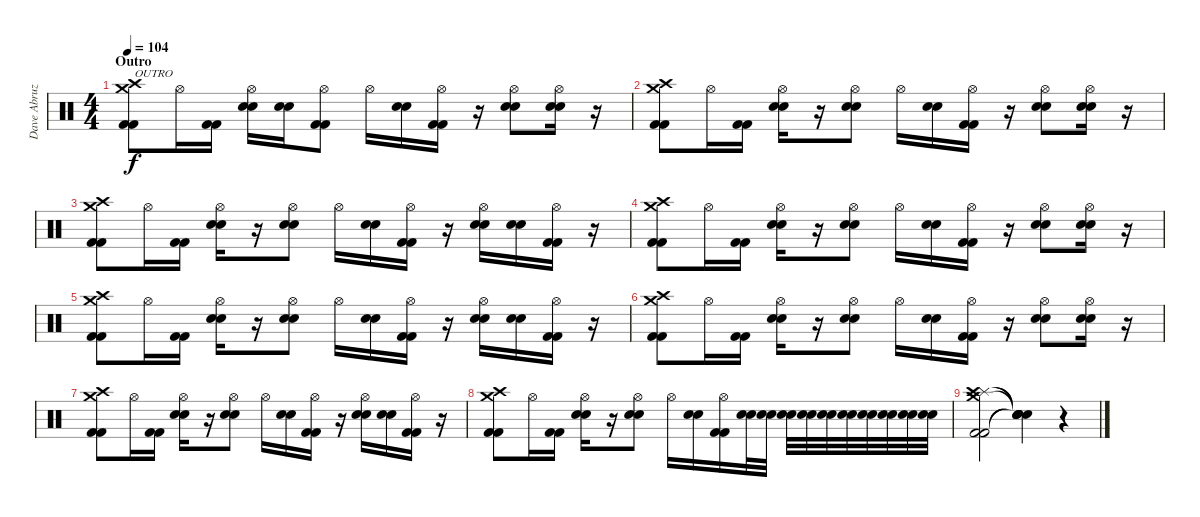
\track ("Dave Abruzzese" "Dave Abruz") {instrument percussion}
\staff {score}
\articulation defaults
\ts (4 4)
\section ("" "Outro")
\tempo 104
\clef neutral
\ks c
("Crash medium (hit)" "Kick (hit) 2" "Kick (hit) 2" "Crash high (hit)").8{txt "OUTRO" dy f} "Hi-Hat (open)".16 ("Kick (hit) 2" "Kick (hit) 2").16 ("Electric Snare (hit)" "Electric Snare (hit)" "Hi-Hat (open)").16 ("Electric Snare (hit)" "Electric Snare (hit)").16 ("Kick (hit) 2" "Kick (hit) 2" "Hi-Hat (open)").8 "Hi-Hat (open)".16 ("Electric Snare (hit)" "Electric Snare (hit)").16 ("Kick (hit) 2" "Kick (hit) 2" "Hi-Hat (open)").16 r.16 ("Electric Snare (hit)" "Electric Snare (hit)" "Hi-Hat (open)").8 ("Electric Snare (hit)" "Electric Snare (hit)" "Hi-Hat (open)").16 r.16 |
("Crash medium (hit)" "Kick (hit) 2" "Kick (hit) 2" "Crash high (hit)").8 "Hi-Hat (open)".16 ("Kick (hit) 2" "Kick (hit) 2").16 ("Electric Snare (hit)" "Electric Snare (hit)" "Hi-Hat (open)").16 r.16 ("Electric Snare (hit)" "Electric Snare (hit)" "Hi-Hat (open)").8 "Hi-Hat (open)".16 ("Electric Snare (hit)" "Electric Snare (hit)").16 ("Kick (hit) 2" "Kick (hit) 2" "Hi-Hat (open)").16 r.16 ("Electric Snare (hit)" "Electric Snare (hit)" "Hi-Hat (open)").8 ("Electric Snare (hit)" "Electric Snare (hit)" "Hi-Hat (open)").16 r.16 |
("Crash medium (hit)" "Kick (hit) 2" "Kick (hit) 2" "Crash high (hit)").8 "Hi-Hat (open)".16 ("Kick (hit) 2" "Kick (hit) 2").16 ("Electric Snare (hit)" "Electric Snare (hit)" "Hi-Hat (open)").16 r.16 ("Electric Snare (hit)" "Electric Snare (hit)" "Hi-Hat (open)").8 "Hi-Hat (open)".16 ("Electric Snare (hit)" "Electric Snare (hit)").16 ("Kick (hit) 2" "Kick (hit) 2" "Hi-Hat (open)").16 r.16 ("Electric Snare (hit)" "Electric Snare (hit)" "Hi-Hat (open)").16 ("Electric Snare (hit)" "Electric Snare (hit)").16 ("Kick (hit) 2" "Kick (hit) 2" "Hi-Hat (open)").16 r.16 |
("Crash medium (hit)" "Kick (hit) 2" "Kick (hit) 2" "Crash high (hit)").8 "Hi-Hat (open)".16 ("Kick (hit) 2" "Kick (hit) 2").16 ("Electric Snare (hit)" "Electric Snare (hit)" "Hi-Hat (open)").16 r.16 ("Electric Snare (hit)" "Electric Snare (hit)" "Hi-Hat (open)").8 "Hi-Hat (open)".16 ("Electric Snare (hit)" "Electric Snare (hit)").16 ("Kick (hit) 2" "Kick (hit) 2" "Hi-Hat (open)").16 r.16 ("Electric Snare (hit)" "Electric Snare (hit)" "Hi-Hat (open)").8 ("Electric Snare (hit)" "Electric Snare (hit)" "Hi-Hat (open)").16 r.16 |
("Crash medium (hit)" "Kick (hit) 2" "Kick (hit) 2" "Crash high (hit)").8 "Hi-Hat (open)".16 ("Kick (hit) 2" "Kick (hit) 2").16 ("Electric Snare (hit)" "Electric Snare (hit)" "Hi-Hat (open)").16 r.16 ("Electric Snare (hit)" "Electric Snare (hit)" "Hi-Hat (open)").8 "Hi-Hat (open)".16 ("Electric Snare (hit)" "Electric Snare (hit)").16 ("Kick (hit) 2" "Kick (hit) 2" "Hi-Hat (open)").16 r.16 ("Electric Snare (hit)" "Electric Snare (hit)" "Hi-Hat (open)").16 ("Electric Snare (hit)" "Electric Snare (hit)").16 ("Kick (hit) 2" "Kick (hit) 2" "Hi-Hat (open)").16 r.16 |
("Crash medium (hit)" "Kick (hit) 2" "Kick (hit) 2" "Crash high (hit)").8 "Hi-Hat (open)".16 ("Kick (hit) 2" "Kick (hit) 2").16 ("Electric Snare (hit)" "Electric Snare (hit)" "Hi-Hat (open)").16 r.16 ("Electric Snare (hit)" "Electric Snare (hit)" "Hi-Hat (open)").8 "Hi-Hat (open)".16 ("Electric Snare (hit)" "Electric Snare (hit)").16 ("Kick (hit) 2" "Kick (hit) 2" "Hi-Hat (open)").16 r.16 ("Electric Snare (hit)" "Electric Snare (hit)" "Hi-Hat (open)").8 ("Electric Snare (hit)" "Electric Snare (hit)" "Hi-Hat (open)").16 r.16 |
("Crash medium (hit)" "Kick (hit) 2" "Kick (hit) 2" "Crash high (hit)").8 "Hi-Hat (open)".16 ("Kick (hit) 2" "Kick (hit) 2").16 ("Electric Snare (hit)" "Electric Snare (hit)" "Hi-Hat (open)").16 r.16 ("Electric Snare (hit)" "Electric Snare (hit)" "Hi-Hat (open)").8 "Hi-Hat (open)".16 ("Electric Snare (hit)" "Electric Snare (hit)").16 ("Kick (hit) 2" "Kick (hit) 2" "Hi-Hat (open)").16 r.16 ("Electric Snare (hit)" "Electric Snare (hit)" "Hi-Hat (open)").16 ("Electric Snare (hit)" "Electric Snare (hit)").16 ("Kick (hit) 2" "Kick (hit) 2" "Hi-Hat (open)").16 r.16 |
("Crash medium (hit)" "Kick (hit) 2" "Kick (hit) 2" "Crash high (hit)").8 "Hi-Hat (open)".16 ("Kick (hit) 2" "Kick (hit) 2").16 ("Electric Snare (hit)" "Electric Snare (hit)" "Hi-Hat (open)").16 r.16 ("Electric Snare (hit)" "Electric Snare (hit)" "Hi-Hat (open)").8 "Hi-Hat (open)".16 ("Electric Snare (hit)" "Electric Snare (hit)").16 ("Kick (hit) 2" "Kick (hit) 2" "Hi-Hat (open)").16 ("Electric Snare (hit)" "Electric Snare (hit)").32 ("Electric Snare (hit)" "Electric Snare (hit)").32 ("Electric Snare (hit)" "Electric Snare (hit)").32 ("Electric Snare (hit)" "Electric Snare (hit)").32 ("Electric Snare (hit)" "Electric Snare (hit)").32 ("Electric Snare (hit)" "Electric Snare (hit)").32 ("Electric Snare (hit)" "Electric Snare (hit)").32 ("Electric Snare (hit)" "Electric Snare (hit)").32 ("Electric Snare (hit)" "Electric Snare (hit)").32 ("Electric Snare (hit)" "Electric Snare (hit)").32 |
("Splash (hit)" "Kick (hit) 2" "Kick (hit) 2" "Crash high (hit)" "Crash medium (hit)").2 ("Snare (hit)"{t} "Snare (hit)"{t} "Snare (hit)"{t} "Snare (hit)"{t} "Snare (hit)"{t}).4 r.4
